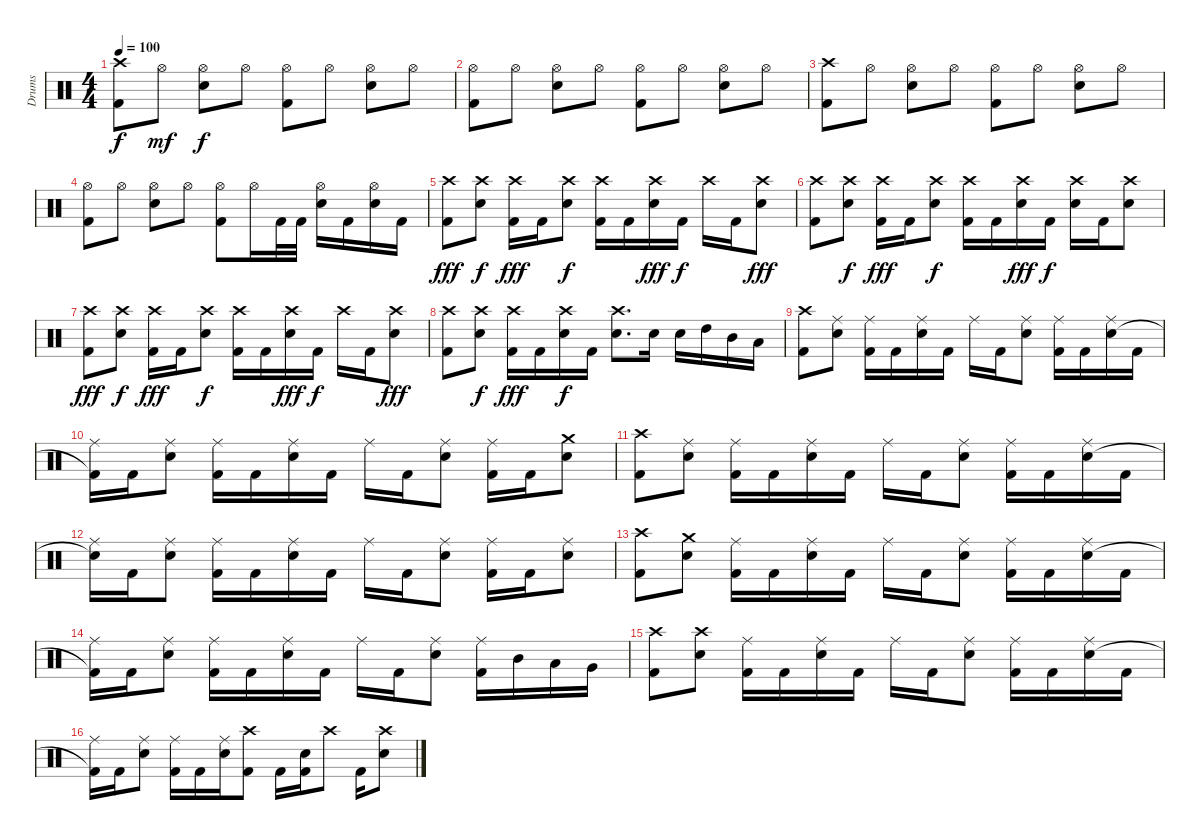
\track ("Drums" "Drums") {instrument percussion}
\staff {score}
\articulation defaults
\ts (4 4)
\tempo 100
\clef neutral
\ks c
("Crash high (hit)" "Kick (hit) 2").8{dy f} "Hi-Hat (open)".8{dy mf} ("Hi-Hat (open)" "Snare (hit) 2").8{dy f} "Hi-Hat (open)".8 ("Hi-Hat (open)" "Kick (hit) 2").8 "Hi-Hat (open)".8 ("Hi-Hat (open)" "Snare (hit) 2").8 "Hi-Hat (open)".8 |
("Hi-Hat (open)" "Kick (hit) 2").8 "Hi-Hat (open)".8 ("Hi-Hat (open)" "Snare (hit) 2").8 "Hi-Hat (open)".8 ("Hi-Hat (open)" "Kick (hit) 2").8 "Hi-Hat (open)".8 ("Hi-Hat (open)" "Snare (hit) 2").8 "Hi-Hat (open)".8 |
("Crash high (hit)" "Kick (hit) 2").8 "Hi-Hat (open)".8 ("Hi-Hat (open)" "Snare (hit) 2").8 "Hi-Hat (open)".8 ("Hi-Hat (open)" "Kick (hit) 2").8 "Hi-Hat (open)".8 ("Hi-Hat (open)" "Snare (hit) 2").8 "Hi-Hat (open)".8 |
("Hi-Hat (open)" "Kick (hit) 2").8 "Hi-Hat (open)".8 ("Hi-Hat (open)" "Snare (hit) 2").8 "Hi-Hat (open)".8 ("Hi-Hat (open)" "Kick (hit) 2").8 "Hi-Hat (open)".16 "Kick (hit) 2".32 "Kick (hit) 2".32 ("Hi-Hat (open)" "Electric Snare (hit)").16 "Kick (hit) 2".16 ("Hi-Hat (open)" "Electric Snare (hit)").16 "Kick (hit) 2".16 |
("Crash high (hit)" "Kick (hit) 2").8{dy fff} ("Crash high (hit)" "Snare (hit) 2").8{dy f} ("Crash high (hit)" "Kick (hit) 2").16{dy fff} "Kick (hit) 2".16 ("Crash high (hit)" "Snare (hit) 2").8{dy f} ("Crash high (hit)" "Kick (hit) 2").16 "Kick (hit) 2".16 ("Crash high (hit)" "Snare (hit) 2").16{dy fff} "Kick (hit) 2".16{dy f} "Crash high (hit)".16 "Kick (hit) 2".16 ("Crash high (hit)" "Snare (hit) 2").8{dy fff} |
("Crash high (hit)" "Kick (hit) 2").8 ("Crash high (hit)" "Snare (hit) 2").8{dy f} ("Crash high (hit)" "Kick (hit) 2").16{dy fff} "Kick (hit) 2".16 ("Crash high (hit)" "Snare (hit) 2").8{dy f} ("Crash high (hit)" "Kick (hit) 2").16 "Kick (hit) 2".16 ("Crash high (hit)" "Snare (hit) 2").16{dy fff} "Kick (hit) 2".16{dy f} ("Crash high (hit)" "Snare (hit) 2").16 "Kick (hit) 2".16 ("Crash high (hit)" "Snare (hit) 2").8 |
("Crash high (hit)" "Kick (hit) 2").8{dy fff} ("Crash high (hit)" "Snare (hit) 2").8{dy f} ("Crash high (hit)" "Kick (hit) 2").16{dy fff} "Kick (hit) 2".16 ("Crash high (hit)" "Snare (hit) 2").8{dy f} ("Crash high (hit)" "Kick (hit) 2").16 "Kick (hit) 2".16 ("Crash high (hit)" "Snare (hit) 2").16{dy fff} "Kick (hit) 2".16{dy f} "Crash high (hit)".16 "Kick (hit) 2".16 ("Crash high (hit)" "Snare (hit) 2").8{dy fff} |
("Crash high (hit)" "Kick (hit) 2").8 ("Crash high (hit)" "Snare (hit) 2").8{dy f} ("Crash high (hit)" "Kick (hit) 2").16{dy fff} "Kick (hit) 2".16 ("Crash high (hit)" "Snare (hit) 2").16{dy f} "Kick (hit) 2".16 ("Crash high (hit)" "Snare (hit) 2").8{d} "Snare (hit) 2".16 "Snare (hit) 2".16 "High Tom (hit)".16 "Mid Tom (hit)".16 "Low Tom (hit)".16 |
("Crash high (hit)" "Kick (hit) 2").8 ("Ride (middle)" "Snare (hit) 2").8 ("Ride (middle)" "Kick (hit) 2").16 "Kick (hit) 2".16 ("Ride (middle)" "Snare (hit) 2").16 "Kick (hit) 2".16 "Ride (middle)".16 "Kick (hit) 2".16 ("Ride (middle)" "Snare (hit) 2").8 ("Ride (middle)" "Kick (hit) 2").16 "Kick (hit) 2".16 ("Ride (middle)" "Snare (hit) 2").16 "Kick (hit) 2".16 |
("Ride (middle)" "Kick (hit) 2"{t}).16 "Kick (hit) 2".16 ("Ride (middle)" "Snare (hit) 2").8 ("Ride (middle)" "Kick (hit) 2").16 "Kick (hit) 2".16 ("Ride (middle)" "Snare (hit) 2").16 "Kick (hit) 2".16 "Ride (middle)".16 "Kick (hit) 2".16 ("Ride (middle)" "Snare (hit) 2").8 ("Ride (middle)" "Kick (hit) 2").16 "Kick (hit) 2".16 ("Crash medium (hit)" "Snare (hit) 2").8 |
("Crash high (hit)" "Kick (hit) 2").8 ("Ride (middle)" "Snare (hit) 2").8 ("Ride (middle)" "Kick (hit) 2").16 "Kick (hit) 2".16 ("Ride (middle)" "Snare (hit) 2").16 "Kick (hit) 2".16 "Ride (middle)".16 "Kick (hit) 2".16 ("Ride (middle)" "Snare (hit) 2").8 ("Ride (middle)" "Kick (hit) 2").16 "Kick (hit) 2".16 ("Ride (middle)" "Snare (hit) 2").16 "Kick (hit) 2".16 |
("Ride (middle)" "Snare (hit)"{t}).16 "Kick (hit) 2".16 ("Ride (middle)" "Snare (hit) 2").8 ("Ride (middle)" "Kick (hit) 2").16 "Kick (hit) 2".16 ("Ride (middle)" "Snare (hit) 2").16 "Kick (hit) 2".16 "Ride (middle)".16 "Kick (hit) 2".16 ("Ride (middle)" "Snare (hit) 2").8 ("Ride (middle)" "Kick (hit) 2").16 "Kick (hit) 2".16 ("Ride (middle)" "Snare (hit) 2").8 |
("Crash high (hit)" "Kick (hit) 2").8 ("Crash medium (hit)" "Snare (hit) 2").8 ("Ride (middle)" "Kick (hit) 2").16 "Kick (hit) 2".16 ("Ride (middle)" "Snare (hit) 2").16 "Kick (hit) 2".16 "Ride (middle)".16 "Kick (hit) 2".16 ("Ride (middle)" "Snare (hit) 2").8 ("Ride (middle)" "Kick (hit) 2").16 "Kick (hit) 2".16 ("Ride (middle)" "Snare (hit) 2").16 "Kick (hit) 2".16 |
("Ride (middle)" "Kick (hit) 2"{t}).16 "Kick (hit) 2".16 ("Ride (middle)" "Snare (hit) 2").8 ("Ride (middle)" "Kick (hit) 2").16 "Kick (hit) 2".16 ("Ride (middle)" "Snare (hit) 2").16 "Kick (hit) 2".16 "Ride (middle)".16 "Kick (hit) 2".16 ("Ride (middle)" "Snare (hit) 2").8 ("Ride (middle)" "Kick (hit) 2").16 "Mid Tom (hit)".16 "Low Tom (hit)".16 "Very Low Tom (hit)".16 |
("Crash high (hit)" "Kick (hit) 2").8 ("Crash high (hit)" "Snare (hit) 2").8 ("Ride (middle)" "Kick (hit) 2").16 "Kick (hit) 2".16 ("Ride (middle)" "Snare (hit) 2").16 "Kick (hit) 2".16 "Ride (middle)".16 "Kick (hit) 2".16 ("Ride (middle)" "Snare (hit) 2").8 ("Ride (middle)" "Kick (hit) 2").16 "Kick (hit) 2".16 ("Ride (middle)" "Snare (hit) 2").16 "Kick (hit) 2".16 |
("Ride (middle)" "Kick (hit) 2"{t}).16 "Kick (hit) 2".16 ("Ride (middle)" "Snare (hit) 2").8 ("Ride (middle)" "Kick (hit) 2").16 "Kick (hit) 2".16 ("Ride (middle)" "Snare (hit) 2").16 ("Crash high (hit)" "Kick (hit) 2").8 "Kick (hit) 2".16 ("Snare (hit) 2" "Kick (hit) 2").16 "Crash high (hit)".8 "Kick (hit) 2".16 ("Crash high (hit)" "Snare (hit) 2").8
